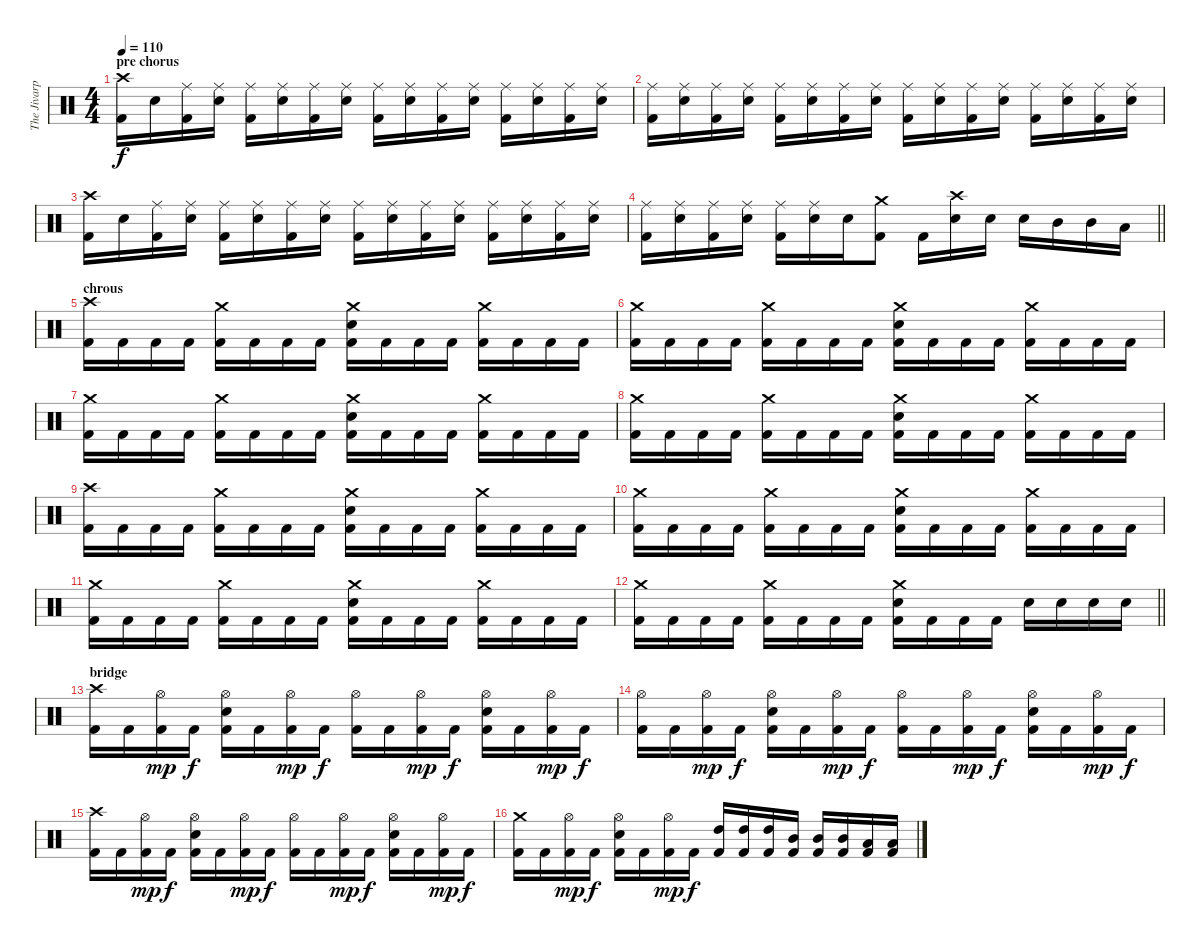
\track ("The Jivarp" "The Jivarp") {instrument percussion}
\staff {score}
\articulation defaults
\ts (4 4)
\section ("" "pre chorus")
\tempo 110
\clef neutral
\ks c
("Crash high (hit)" "Kick (hit) 2").16{dy f} "Electric Snare (hit)".16 ("Ride (middle)" "Kick (hit) 2").16 ("Ride (middle)" "Electric Snare (hit)").16 ("Ride (middle)" "Kick (hit) 2").16 ("Ride (middle)" "Electric Snare (hit)").16 ("Ride (middle)" "Kick (hit) 2").16 ("Ride (middle)" "Electric Snare (hit)").16 ("Ride (middle)" "Kick (hit) 2").16 ("Ride (middle)" "Electric Snare (hit)").16 ("Ride (middle)" "Kick (hit) 2").16 ("Ride (middle)" "Electric Snare (hit)").16 ("Ride (middle)" "Kick (hit) 2").16 ("Ride (middle)" "Electric Snare (hit)").16 ("Ride (middle)" "Kick (hit) 2").16 ("Ride (middle)" "Electric Snare (hit)").16 |
("Ride (middle)" "Kick (hit) 2").16 ("Ride (middle)" "Electric Snare (hit)").16 ("Ride (middle)" "Kick (hit) 2").16 ("Ride (middle)" "Electric Snare (hit)").16 ("Ride (middle)" "Kick (hit) 2").16 ("Ride (middle)" "Electric Snare (hit)").16 ("Ride (middle)" "Kick (hit) 2").16 ("Ride (middle)" "Electric Snare (hit)").16 ("Ride (middle)" "Kick (hit) 2").16 ("Ride (middle)" "Electric Snare (hit)").16 ("Ride (middle)" "Kick (hit) 2").16 ("Ride (middle)" "Electric Snare (hit)").16 ("Ride (middle)" "Kick (hit) 2").16 ("Ride (middle)" "Electric Snare (hit)").16 ("Ride (middle)" "Kick (hit) 2").16 ("Ride (middle)" "Electric Snare (hit)").16 |
("Crash high (hit)" "Kick (hit) 2").16 "Electric Snare (hit)".16 ("Ride (middle)" "Kick (hit) 2").16 ("Ride (middle)" "Electric Snare (hit)").16 ("Ride (middle)" "Kick (hit) 2").16 ("Ride (middle)" "Electric Snare (hit)").16 ("Ride (middle)" "Kick (hit) 2").16 ("Ride (middle)" "Electric Snare (hit)").16 ("Ride (middle)" "Kick (hit) 2").16 ("Ride (middle)" "Electric Snare (hit)").16 ("Ride (middle)" "Kick (hit) 2").16 ("Ride (middle)" "Electric Snare (hit)").16 ("Ride (middle)" "Kick (hit) 2").16 ("Ride (middle)" "Electric Snare (hit)").16 ("Ride (middle)" "Kick (hit) 2").16 ("Ride (middle)" "Electric Snare (hit)").16 |
\barLineRight lightlight
("Ride (middle)" "Kick (hit) 2").16 ("Ride (middle)" "Electric Snare (hit)").16 ("Ride (middle)" "Kick (hit) 2").16 ("Ride (middle)" "Electric Snare (hit)").16 ("Ride (middle)" "Kick (hit) 2").16 ("Ride (middle)" "Electric Snare (hit)").16 "Electric Snare (hit)".16 ("Crash medium (hit)" "Kick (hit) 2").8 "Kick (hit) 2".16 ("Crash high (hit)" "Electric Snare (hit)").16 "Electric Snare (hit)".16 "Electric Snare (hit)".16 "Mid Tom (hit)".16 "Mid Tom (hit)".16 "Low Tom (hit)".16 |
\section ("" "chrous")
("Crash high (hit)" "Kick (hit) 2").16 "Kick (hit) 2".16 "Kick (hit) 2".16 "Kick (hit) 2".16 ("Crash medium (hit)" "Kick (hit) 2").16 "Kick (hit) 2".16 "Kick (hit) 2".16 "Kick (hit) 2".16 ("Crash medium (hit)" "Electric Snare (hit)" "Kick (hit) 2").16 "Kick (hit) 2".16 "Kick (hit) 2".16 "Kick (hit) 2".16 ("Crash medium (hit)" "Kick (hit) 2").16 "Kick (hit) 2".16 "Kick (hit) 2".16 "Kick (hit) 2".16 |
("Crash medium (hit)" "Kick (hit) 2").16 "Kick (hit) 2".16 "Kick (hit) 2".16 "Kick (hit) 2".16 ("Crash medium (hit)" "Kick (hit) 2").16 "Kick (hit) 2".16 "Kick (hit) 2".16 "Kick (hit) 2".16 ("Crash medium (hit)" "Electric Snare (hit)" "Kick (hit) 2").16 "Kick (hit) 2".16 "Kick (hit) 2".16 "Kick (hit) 2".16 ("Crash medium (hit)" "Kick (hit) 2").16 "Kick (hit) 2".16 "Kick (hit) 2".16 "Kick (hit) 2".16 |
("Crash medium (hit)" "Kick (hit) 2").16 "Kick (hit) 2".16 "Kick (hit) 2".16 "Kick (hit) 2".16 ("Crash medium (hit)" "Kick (hit) 2").16 "Kick (hit) 2".16 "Kick (hit) 2".16 "Kick (hit) 2".16 ("Crash medium (hit)" "Electric Snare (hit)" "Kick (hit) 2").16 "Kick (hit) 2".16 "Kick (hit) 2".16 "Kick (hit) 2".16 ("Crash medium (hit)" "Kick (hit) 2").16 "Kick (hit) 2".16 "Kick (hit) 2".16 "Kick (hit) 2".16 |
("Crash medium (hit)" "Kick (hit) 2").16 "Kick (hit) 2".16 "Kick (hit) 2".16 "Kick (hit) 2".16 ("Crash medium (hit)" "Kick (hit) 2").16 "Kick (hit) 2".16 "Kick (hit) 2".16 "Kick (hit) 2".16 ("Crash medium (hit)" "Electric Snare (hit)" "Kick (hit) 2").16 "Kick (hit) 2".16 "Kick (hit) 2".16 "Kick (hit) 2".16 ("Crash medium (hit)" "Kick (hit) 2").16 "Kick (hit) 2".16 "Kick (hit) 2".16 "Kick (hit) 2".16 |
("Crash high (hit)" "Kick (hit) 2").16 "Kick (hit) 2".16 "Kick (hit) 2".16 "Kick (hit) 2".16 ("Crash medium (hit)" "Kick (hit) 2").16 "Kick (hit) 2".16 "Kick (hit) 2".16 "Kick (hit) 2".16 ("Crash medium (hit)" "Electric Snare (hit)" "Kick (hit) 2").16 "Kick (hit) 2".16 "Kick (hit) 2".16 "Kick (hit) 2".16 ("Crash medium (hit)" "Kick (hit) 2").16 "Kick (hit) 2".16 "Kick (hit) 2".16 "Kick (hit) 2".16 |
("Crash medium (hit)" "Kick (hit) 2").16 "Kick (hit) 2".16 "Kick (hit) 2".16 "Kick (hit) 2".16 ("Crash medium (hit)" "Kick (hit) 2").16 "Kick (hit) 2".16 "Kick (hit) 2".16 "Kick (hit) 2".16 ("Crash medium (hit)" "Electric Snare (hit)" "Kick (hit) 2").16 "Kick (hit) 2".16 "Kick (hit) 2".16 "Kick (hit) 2".16 ("Crash medium (hit)" "Kick (hit) 2").16 "Kick (hit) 2".16 "Kick (hit) 2".16 "Kick (hit) 2".16 |
("Crash medium (hit)" "Kick (hit) 2").16 "Kick (hit) 2".16 "Kick (hit) 2".16 "Kick (hit) 2".16 ("Crash medium (hit)" "Kick (hit) 2").16 "Kick (hit) 2".16 "Kick (hit) 2".16 "Kick (hit) 2".16 ("Crash medium (hit)" "Electric Snare (hit)" "Kick (hit) 2").16 "Kick (hit) 2".16 "Kick (hit) 2".16 "Kick (hit) 2".16 ("Crash medium (hit)" "Kick (hit) 2").16 "Kick (hit) 2".16 "Kick (hit) 2".16 "Kick (hit) 2".16 |
\barLineRight lightlight
("Crash medium (hit)" "Kick (hit) 2").16 "Kick (hit) 2".16 "Kick (hit) 2".16 "Kick (hit) 2".16 ("Crash medium (hit)" "Kick (hit) 2").16 "Kick (hit) 2".16 "Kick (hit) 2".16 "Kick (hit) 2".16 ("Crash medium (hit)" "Electric Snare (hit)" "Kick (hit) 2").16 "Kick (hit) 2".16 "Kick (hit) 2".16 "Kick (hit) 2".16 "Electric Snare (hit)".16 "Electric Snare (hit)".16 "Electric Snare (hit)".16 "Electric Snare (hit)".16 |
\section ("" "bridge")
("Crash high (hit)" "Kick (hit) 2").16 "Kick (hit) 2".16 ("Hi-Hat (open)" "Kick (hit) 2").16{dy mp} "Kick (hit) 2".16{dy f} ("Hi-Hat (open)" "Electric Snare (hit)" "Kick (hit) 2").16 "Kick (hit) 2".16 ("Hi-Hat (open)" "Kick (hit) 2").16{dy mp} "Kick (hit) 2".16{dy f} ("Hi-Hat (open)" "Kick (hit) 2").16 "Kick (hit) 2".16 ("Hi-Hat (open)" "Kick (hit) 2").16{dy mp} "Kick (hit) 2".16{dy f} ("Hi-Hat (open)" "Electric Snare (hit)" "Kick (hit) 2").16 "Kick (hit) 2".16 ("Hi-Hat (open)" "Kick (hit) 2").16{dy mp} "Kick (hit) 2".16{dy f} |
("Hi-Hat (open)" "Kick (hit) 2").16 "Kick (hit) 2".16 ("Hi-Hat (open)" "Kick (hit) 2").16{dy mp} "Kick (hit) 2".16{dy f} ("Hi-Hat (open)" "Electric Snare (hit)" "Kick (hit) 2").16 "Kick (hit) 2".16 ("Hi-Hat (open)" "Kick (hit) 2").16{dy mp} "Kick (hit) 2".16{dy f} ("Hi-Hat (open)" "Kick (hit) 2").16 "Kick (hit) 2".16 ("Hi-Hat (open)" "Kick (hit) 2").16{dy mp} "Kick (hit) 2".16{dy f} ("Hi-Hat (open)" "Electric Snare (hit)" "Kick (hit) 2").16 "Kick (hit) 2".16 ("Hi-Hat (open)" "Kick (hit) 2").16{dy mp} "Kick (hit) 2".16{dy f} |
("Crash high (hit)" "Kick (hit) 2").16 "Kick (hit) 2".16 ("Hi-Hat (open)" "Kick (hit) 2").16{dy mp} "Kick (hit) 2".16{dy f} ("Hi-Hat (open)" "Electric Snare (hit)" "Kick (hit) 2").16 "Kick (hit) 2".16 ("Hi-Hat (open)" "Kick (hit) 2").16{dy mp} "Kick (hit) 2".16{dy f} ("Hi-Hat (open)" "Kick (hit) 2").16 "Kick (hit) 2".16 ("Hi-Hat (open)" "Kick (hit) 2").16{dy mp} "Kick (hit) 2".16{dy f} ("Hi-Hat (open)" "Electric Snare (hit)" "Kick (hit) 2").16 "Kick (hit) 2".16 ("Hi-Hat (open)" "Kick (hit) 2").16{dy mp} "Kick (hit) 2".16{dy f} |
("Crash medium (hit)" "Kick (hit) 2").16 "Kick (hit) 2".16 ("Hi-Hat (open)" "Kick (hit) 2").16{dy mp} "Kick (hit) 2".16{dy f} ("Hi-Hat (open)" "Electric Snare (hit)" "Kick (hit) 2").16 "Kick (hit) 2".16 ("Hi-Hat (open)" "Kick (hit) 2").16{dy mp} "Kick (hit) 2".16{dy f} ("High Tom (hit)" "Kick (hit) 2").16 ("High Tom (hit)" "Kick (hit) 2").16 ("High Tom (hit)" "Kick (hit) 2").16 ("Mid Tom (hit)" "Kick (hit) 2").16 ("Mid Tom (hit)" "Kick (hit) 2").16 ("Mid Tom (hit)" "Kick (hit) 2").16 ("Low Tom (hit)" "Kick (hit) 2").16 ("Low Tom (hit)" "Kick (hit) 2").16
